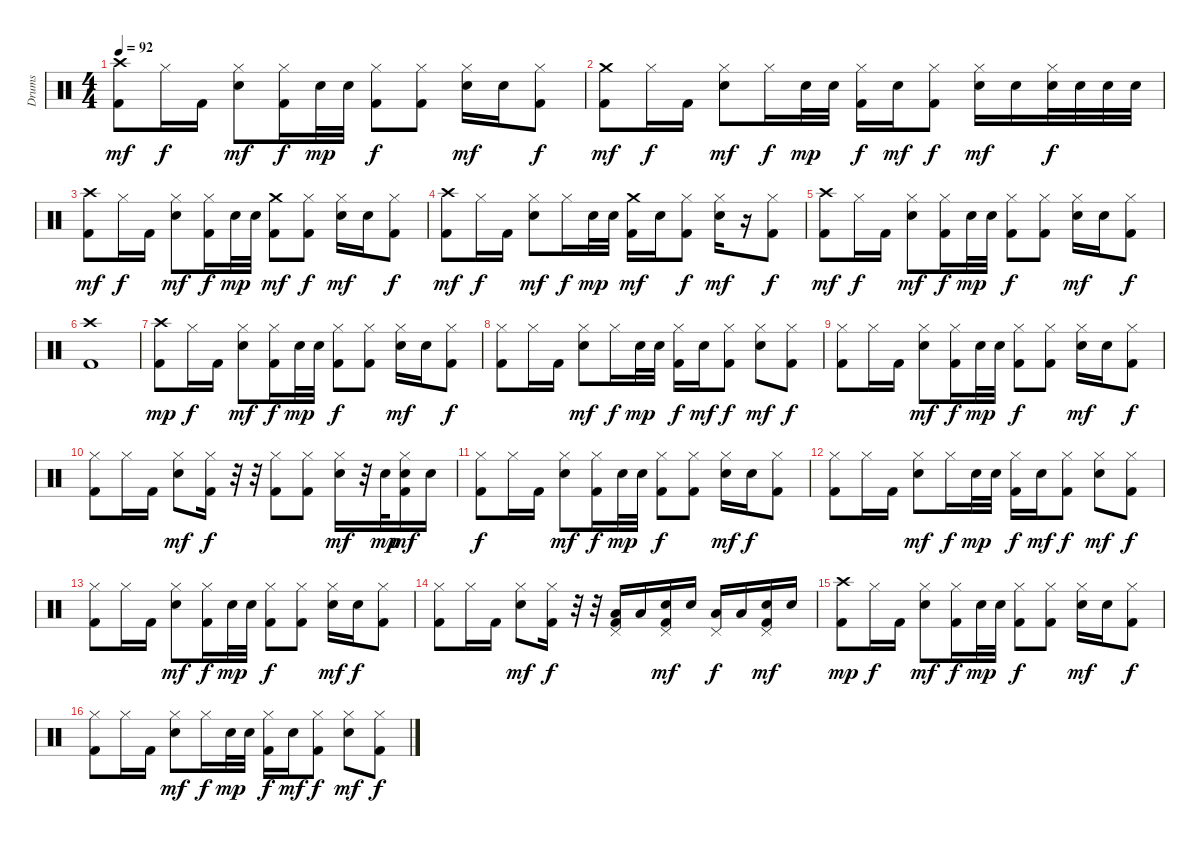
\track ("Drums" "Drums") {instrument percussion}
\staff {score}
\articulation defaults
\ts (4 4)
\tempo 92
\clef neutral
\ks c
("Crash high (hit)" "Kick (hit) 2").8{dy mf} "Hi-Hat (closed)".16{dy f} "Kick (hit) 2".16 ("Hi-Hat (closed)" "Snare (hit) 2").8{dy mf} ("Hi-Hat (closed)" "Kick (hit) 2").16{dy f} "Snare (hit) 2".32{dy mp} "Snare (hit) 2".32 ("Hi-Hat (closed)" "Kick (hit) 2").8{dy f} ("Hi-Hat (closed)" "Kick (hit) 2").8 ("Hi-Hat (closed)" "Snare (hit) 2").16{dy mf} "Snare (hit) 2".16 ("Hi-Hat (closed)" "Kick (hit) 2").8{dy f} |
("Crash medium (hit)" "Kick (hit) 2").8{dy mf} "Hi-Hat (closed)".16{dy f} "Kick (hit) 2".16 ("Hi-Hat (closed)" "Snare (hit) 2").8{dy mf} "Hi-Hat (closed)".16{dy f} "Snare (hit) 2".32{dy mp} "Snare (hit) 2".32 ("Hi-Hat (closed)" "Kick (hit) 2").16{dy f} "Snare (hit) 2".16{dy mf} ("Hi-Hat (closed)" "Kick (hit) 2").8{dy f} ("Hi-Hat (closed)" "Snare (hit) 2").16{dy mf} "Snare (hit) 2".16 ("Hi-Hat (closed)" "Snare (hit) 2").32{dy f} "Snare (hit) 2".32 "Snare (hit) 2".32 "Snare (hit) 2".32 |
("Crash high (hit)" "Kick (hit) 2").8{dy mf} "Hi-Hat (closed)".16{dy f} "Kick (hit) 2".16 ("Hi-Hat (closed)" "Snare (hit) 2").8{dy mf} ("Hi-Hat (closed)" "Kick (hit) 2").16{dy f} "Snare (hit) 2".32{dy mp} "Snare (hit) 2".32 ("Crash medium (hit)" "Kick (hit) 2").8{dy mf} ("Hi-Hat (closed)" "Kick (hit) 2").8{dy f} ("Hi-Hat (closed)" "Snare (hit) 2").16{dy mf} "Snare (hit) 2".16 ("Hi-Hat (closed)" "Kick (hit) 2").8{dy f} |
("Crash high (hit)" "Kick (hit) 2").8{dy mf} "Hi-Hat (closed)".16{dy f} "Kick (hit) 2".16 ("Hi-Hat (closed)" "Snare (hit) 2").8{dy mf} "Hi-Hat (closed)".16{dy f} "Snare (hit) 2".32{dy mp} "Snare (hit) 2".32 ("Crash medium (hit)" "Kick (hit) 2").16{dy mf} "Snare (hit) 2".16 ("Hi-Hat (closed)" "Kick (hit) 2").8{dy f} ("Hi-Hat (closed)" "Snare (hit) 2").16{dy mf} r.16 ("Hi-Hat (closed)" "Kick (hit) 2").8{dy f} |
("Crash high (hit)" "Kick (hit) 2").8{dy mf} "Hi-Hat (closed)".16{dy f} "Kick (hit) 2".16 ("Hi-Hat (closed)" "Snare (hit) 2").8{dy mf} ("Hi-Hat (closed)" "Kick (hit) 2").16{dy f} "Snare (hit) 2".32{dy mp} "Snare (hit) 2".32 ("Hi-Hat (closed)" "Kick (hit) 2").8{dy f} ("Hi-Hat (closed)" "Kick (hit) 2").8 ("Hi-Hat (closed)" "Snare (hit) 2").16{dy mf} "Snare (hit) 2".16 ("Hi-Hat (closed)" "Kick (hit) 2").8{dy f} |
("Crash high (hit)" "Kick (hit) 2").1 |
("Crash high (hit)" "Kick (hit) 2").8{dy mp} "Hi-Hat (closed)".16{dy f} "Kick (hit) 2".16 ("Hi-Hat (closed)" "Snare (hit) 2").8{dy mf} ("Hi-Hat (closed)" "Kick (hit) 2").16{dy f} "Snare (hit) 2".32{dy mp} "Snare (hit) 2".32 ("Hi-Hat (closed)" "Kick (hit) 2").8{dy f} ("Hi-Hat (closed)" "Kick (hit) 2").8 ("Hi-Hat (closed)" "Snare (hit) 2").16{dy mf} "Snare (hit) 2".16 ("Hi-Hat (closed)" "Kick (hit) 2").8{dy f} |
("Hi-Hat (closed)" "Kick (hit) 2").8 "Hi-Hat (closed)".16 "Kick (hit) 2".16 ("Hi-Hat (closed)" "Snare (hit) 2").8{dy mf} "Hi-Hat (closed)".16{dy f} "Snare (hit) 2".32{dy mp} "Snare (hit) 2".32 ("Hi-Hat (closed)" "Kick (hit) 2").16{dy f} "Snare (hit) 2".16{dy mf} ("Hi-Hat (closed)" "Kick (hit) 2").8{dy f} ("Hi-Hat (closed)" "Snare (hit) 2").8{dy mf} ("Hi-Hat (closed)" "Kick (hit) 2").8{dy f} |
("Hi-Hat (closed)" "Kick (hit) 2").8 "Hi-Hat (closed)".16 "Kick (hit) 2".16 ("Hi-Hat (closed)" "Snare (hit) 2").8{dy mf} ("Hi-Hat (closed)" "Kick (hit) 2").16{dy f} "Snare (hit) 2".32{dy mp} "Snare (hit) 2".32 ("Hi-Hat (closed)" "Kick (hit) 2").8{dy f} ("Hi-Hat (closed)" "Kick (hit) 2").8 ("Hi-Hat (closed)" "Snare (hit) 2").16{dy mf} "Snare (hit) 2".16 ("Hi-Hat (closed)" "Kick (hit) 2").8{dy f} |
("Hi-Hat (closed)" "Kick (hit) 2").8 "Hi-Hat (closed)".16 "Kick (hit) 2".16 ("Hi-Hat (closed)" "Snare (hit) 2").8{dy mf} ("Hi-Hat (closed)" "Kick (hit) 2").16{dy f} r.32 r.32 ("Hi-Hat (closed)" "Kick (hit) 2").8 ("Hi-Hat (closed)" "Kick (hit) 2").8 ("Hi-Hat (closed)" "Snare (hit) 2").16{dy mf} r.32 "Snare (hit) 2".32{dy mp} ("Hi-Hat (closed)" "Snare (hit) 2" "Kick (hit) 2").16{dy mf} "Snare (hit) 2".16 |
("Hi-Hat (closed)" "Kick (hit) 2").8{dy f} "Hi-Hat (closed)".16 "Kick (hit) 2".16 ("Hi-Hat (closed)" "Snare (hit) 2").8{dy mf} ("Hi-Hat (closed)" "Kick (hit) 2").16{dy f} "Snare (hit) 2".32{dy mp} "Snare (hit) 2".32 ("Hi-Hat (closed)" "Kick (hit) 2").8{dy f} ("Hi-Hat (closed)" "Kick (hit) 2").8 ("Hi-Hat (closed)" "Snare (hit) 2").16{dy mf} "Snare (hit) 2".16{dy f} ("Hi-Hat (closed)" "Kick (hit) 2").8 |
("Hi-Hat (closed)" "Kick (hit) 2").8 "Hi-Hat (closed)".16 "Kick (hit) 2".16 ("Hi-Hat (closed)" "Snare (hit) 2").8{dy mf} "Hi-Hat (closed)".16{dy f} "Snare (hit) 2".32{dy mp} "Snare (hit) 2".32 ("Hi-Hat (closed)" "Kick (hit) 2").16{dy f} "Snare (hit) 2".16{dy mf} ("Hi-Hat (closed)" "Kick (hit) 2").8{dy f} ("Hi-Hat (closed)" "Snare (hit) 2").8{dy mf} ("Hi-Hat (closed)" "Kick (hit) 2").8{dy f} |
("Hi-Hat (closed)" "Kick (hit) 2").8 "Hi-Hat (closed)".16 "Kick (hit) 2".16 ("Hi-Hat (closed)" "Snare (hit) 2").8{dy mf} ("Hi-Hat (closed)" "Kick (hit) 2").16{dy f} "Snare (hit) 2".32{dy mp} "Snare (hit) 2".32 ("Hi-Hat (closed)" "Kick (hit) 2").8{dy f} ("Hi-Hat (closed)" "Kick (hit) 2").8 ("Hi-Hat (closed)" "Snare (hit) 2").16{dy mf} "Snare (hit) 2".16{dy f} ("Hi-Hat (closed)" "Kick (hit) 2").8 |
("Hi-Hat (closed)" "Kick (hit) 2").8 "Hi-Hat (closed)".16 "Kick (hit) 2".16 ("Hi-Hat (closed)" "Snare (hit) 2").8{dy mf} ("Hi-Hat (closed)" "Kick (hit) 2").16{dy f} r.32 r.32 ("Pedal Hi-Hat (hit)" "Low Tom (hit)" "Kick (hit) 2").16 "Low Tom (hit)".16 ("Pedal Hi-Hat (hit)" "Snare (hit) 2" "Kick (hit) 2").16{dy mf} "Snare (hit) 2".16 ("Pedal Hi-Hat (hit)" "Low Tom (hit)").16{dy f} "Low Tom (hit)".16 ("Pedal Hi-Hat (hit)" "Snare (hit) 2" "Kick (hit) 2").16{dy mf} "Snare (hit) 2".16 |
("Crash high (hit)" "Kick (hit) 2").8{dy mp} "Hi-Hat (closed)".16{dy f} "Kick (hit) 2".16 ("Hi-Hat (closed)" "Snare (hit) 2").8{dy mf} ("Hi-Hat (closed)" "Kick (hit) 2").16{dy f} "Snare (hit) 2".32{dy mp} "Snare (hit) 2".32 ("Hi-Hat (closed)" "Kick (hit) 2").8{dy f} ("Hi-Hat (closed)" "Kick (hit) 2").8 ("Hi-Hat (closed)" "Snare (hit) 2").16{dy mf} "Snare (hit) 2".16 ("Hi-Hat (closed)" "Kick (hit) 2").8{dy f} |
("Hi-Hat (closed)" "Kick (hit) 2").8 "Hi-Hat (closed)".16 "Kick (hit) 2".16 ("Hi-Hat (closed)" "Snare (hit) 2").8{dy mf} "Hi-Hat (closed)".16{dy f} "Snare (hit) 2".32{dy mp} "Snare (hit) 2".32 ("Hi-Hat (closed)" "Kick (hit) 2").16{dy f} "Snare (hit) 2".16{dy mf} ("Hi-Hat (closed)" "Kick (hit) 2").8{dy f} ("Hi-Hat (closed)" "Snare (hit) 2").8{dy mf} ("Hi-Hat (closed)" "Kick (hit) 2").8{dy f}
